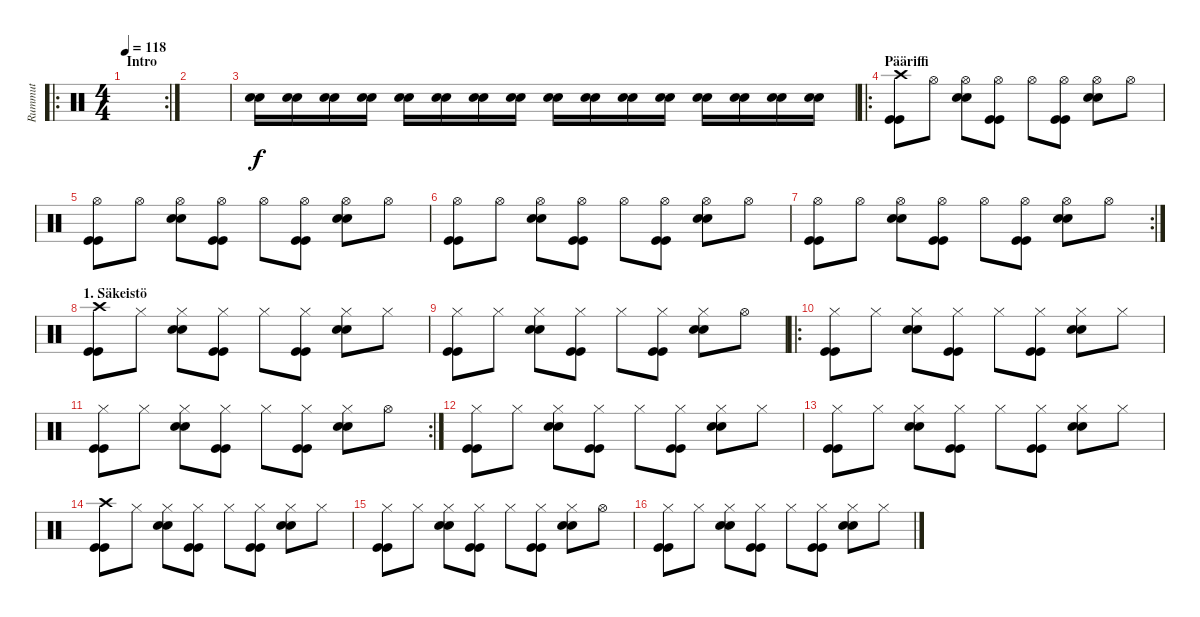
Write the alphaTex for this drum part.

\track ("Rummut" "Rummut") {instrument percussion}
\staff {score}
\articulation defaults
\ro
\rc 2
\ts (4 4)
\section ("" "Intro")
\tempo 118
\clef neutral
\ks c
|
|
("Snare (hit) 2" "Snare (hit) 2").16 ("Snare (hit) 2" "Snare (hit) 2").16 ("Snare (hit) 2" "Snare (hit) 2").16 ("Snare (hit) 2" "Snare (hit) 2").16 ("Snare (hit) 2" "Snare (hit) 2").16 ("Snare (hit) 2" "Snare (hit) 2").16 ("Snare (hit) 2" "Snare (hit) 2").16 ("Snare (hit) 2" "Snare (hit) 2").16 ("Snare (hit) 2" "Snare (hit) 2").16 ("Snare (hit) 2" "Snare (hit) 2").16 ("Snare (hit) 2" "Snare (hit) 2").16 ("Snare (hit) 2" "Snare (hit) 2").16 ("Snare (hit) 2" "Snare (hit) 2").16 ("Snare (hit) 2" "Snare (hit) 2").16 ("Snare (hit) 2" "Snare (hit) 2").16 ("Snare (hit) 2" "Snare (hit) 2").16 |
\ro
\section ("" "Pääriffi")
("Crash high (hit)" "Kick (hit)" "Kick (hit)").8 "Hi-Hat (open)".8 ("Hi-Hat (open)" "Snare (hit) 2" "Snare (hit) 2").8 ("Hi-Hat (open)" "Kick (hit)" "Kick (hit)").8 "Hi-Hat (open)".8 ("Hi-Hat (open)" "Kick (hit)" "Kick (hit)").8 ("Hi-Hat (open)" "Snare (hit) 2" "Snare (hit) 2").8 "Hi-Hat (open)".8 |
("Hi-Hat (open)" "Kick (hit)" "Kick (hit)").8 "Hi-Hat (open)".8 ("Hi-Hat (open)" "Snare (hit) 2" "Snare (hit) 2").8 ("Hi-Hat (open)" "Kick (hit)" "Kick (hit)").8 "Hi-Hat (open)".8 ("Hi-Hat (open)" "Kick (hit)" "Kick (hit)").8 ("Hi-Hat (open)" "Snare (hit) 2" "Snare (hit) 2").8 "Hi-Hat (open)".8 |
("Hi-Hat (open)" "Kick (hit)" "Kick (hit)").8 "Hi-Hat (open)".8 ("Hi-Hat (open)" "Snare (hit) 2" "Snare (hit) 2").8 ("Hi-Hat (open)" "Kick (hit)" "Kick (hit)").8 "Hi-Hat (open)".8 ("Hi-Hat (open)" "Kick (hit)" "Kick (hit)").8 ("Hi-Hat (open)" "Snare (hit) 2" "Snare (hit) 2").8 "Hi-Hat (open)".8 |
\rc 2
("Hi-Hat (open)" "Kick (hit)" "Kick (hit)").8 "Hi-Hat (open)".8 ("Hi-Hat (open)" "Snare (hit) 2" "Snare (hit) 2").8 ("Hi-Hat (open)" "Kick (hit)" "Kick (hit)").8 "Hi-Hat (open)".8 ("Hi-Hat (open)" "Kick (hit)" "Kick (hit)").8 ("Hi-Hat (open)" "Snare (hit) 2" "Snare (hit) 2").8 "Hi-Hat (open)".8 |
\section ("" "1. Säkeistö")
("Crash high (hit)" "Kick (hit)" "Kick (hit)").8 "Hi-Hat (closed)".8 ("Hi-Hat (closed)" "Snare (hit) 2" "Snare (hit) 2").8 ("Hi-Hat (closed)" "Kick (hit)" "Kick (hit)").8 "Hi-Hat (closed)".8 ("Hi-Hat (closed)" "Kick (hit)" "Kick (hit)").8 ("Hi-Hat (closed)" "Snare (hit) 2" "Snare (hit) 2").8 "Hi-Hat (closed)".8 |
("Hi-Hat (closed)" "Kick (hit)" "Kick (hit)").8 "Hi-Hat (closed)".8 ("Hi-Hat (closed)" "Snare (hit) 2" "Snare (hit) 2").8 ("Hi-Hat (closed)" "Kick (hit)" "Kick (hit)").8 "Hi-Hat (closed)".8 ("Hi-Hat (closed)" "Kick (hit)" "Kick (hit)").8 ("Hi-Hat (closed)" "Snare (hit) 2" "Snare (hit) 2").8 "Hi-Hat (open)".8 |
\ro
("Hi-Hat (closed)" "Kick (hit)" "Kick (hit)").8 "Hi-Hat (closed)".8 ("Hi-Hat (closed)" "Snare (hit) 2" "Snare (hit) 2").8 ("Hi-Hat (closed)" "Kick (hit)" "Kick (hit)").8 "Hi-Hat (closed)".8 ("Hi-Hat (closed)" "Kick (hit)" "Kick (hit)").8 ("Hi-Hat (closed)" "Snare (hit) 2" "Snare (hit) 2").8 "Hi-Hat (closed)".8 |
\rc 2
("Hi-Hat (closed)" "Kick (hit)" "Kick (hit)").8 "Hi-Hat (closed)".8 ("Hi-Hat (closed)" "Snare (hit) 2" "Snare (hit) 2").8 ("Hi-Hat (closed)" "Kick (hit)" "Kick (hit)").8 "Hi-Hat (closed)".8 ("Hi-Hat (closed)" "Kick (hit)" "Kick (hit)").8 ("Hi-Hat (closed)" "Snare (hit) 2" "Snare (hit) 2").8 "Hi-Hat (open)".8 |
("Hi-Hat (closed)" "Kick (hit)" "Kick (hit)").8 "Hi-Hat (closed)".8 ("Hi-Hat (closed)" "Snare (hit) 2" "Snare (hit) 2").8 ("Hi-Hat (closed)" "Kick (hit)" "Kick (hit)").8 "Hi-Hat (closed)".8 ("Hi-Hat (closed)" "Kick (hit)" "Kick (hit)").8 ("Hi-Hat (closed)" "Snare (hit) 2" "Snare (hit) 2").8 "Hi-Hat (closed)".8 |
("Hi-Hat (closed)" "Kick (hit)" "Kick (hit)").8 "Hi-Hat (closed)".8 ("Hi-Hat (closed)" "Snare (hit) 2" "Snare (hit) 2").8 ("Hi-Hat (closed)" "Kick (hit)" "Kick (hit)").8 "Hi-Hat (closed)".8 ("Hi-Hat (closed)" "Kick (hit)" "Kick (hit)").8 ("Hi-Hat (closed)" "Snare (hit) 2" "Snare (hit) 2").8 "Hi-Hat (closed)".8 |
("Crash high (hit)" "Kick (hit)" "Kick (hit)").8 "Hi-Hat (closed)".8 ("Hi-Hat (closed)" "Snare (hit) 2" "Snare (hit) 2").8 ("Hi-Hat (closed)" "Kick (hit)" "Kick (hit)").8 "Hi-Hat (closed)".8 ("Hi-Hat (closed)" "Kick (hit)" "Kick (hit)").8 ("Hi-Hat (closed)" "Snare (hit) 2" "Snare (hit) 2").8 "Hi-Hat (closed)".8 |
("Hi-Hat (closed)" "Kick (hit)" "Kick (hit)").8 "Hi-Hat (closed)".8 ("Hi-Hat (closed)" "Snare (hit) 2" "Snare (hit) 2").8 ("Hi-Hat (closed)" "Kick (hit)" "Kick (hit)").8 "Hi-Hat (closed)".8 ("Hi-Hat (closed)" "Kick (hit)" "Kick (hit)").8 ("Hi-Hat (closed)" "Snare (hit) 2" "Snare (hit) 2").8 "Hi-Hat (open)".8 |
("Hi-Hat (closed)" "Kick (hit)" "Kick (hit)").8 "Hi-Hat (closed)".8 ("Hi-Hat (closed)" "Snare (hit) 2" "Snare (hit) 2").8 ("Hi-Hat (closed)" "Kick (hit)" "Kick (hit)").8 "Hi-Hat (closed)".8 ("Hi-Hat (closed)" "Kick (hit)" "Kick (hit)").8 ("Hi-Hat (closed)" "Snare (hit) 2" "Snare (hit) 2").8 "Hi-Hat (closed)".8
